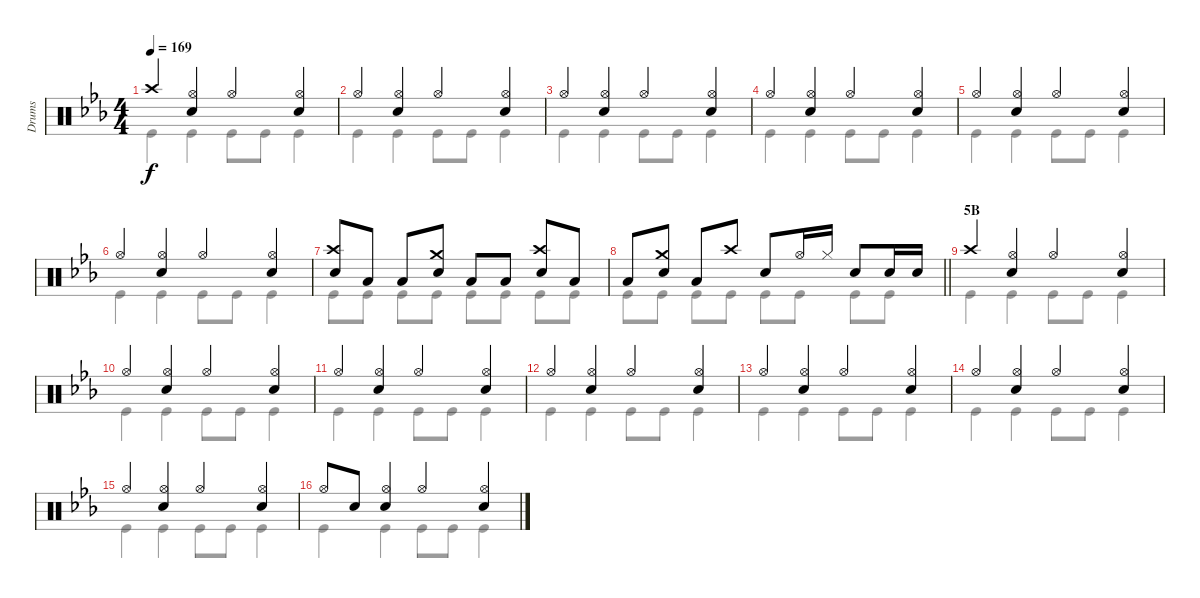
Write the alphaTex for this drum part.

\track ("Drums" "Drums") {instrument percussion}
\staff {score}
\articulation defaults
\voice
\ts (4 4)
\tempo 169
\clef neutral
\ks eb "Crash high (hit)".4{dy f}
("Hi-Hat (open)" "Snare (hit) 2").4 "Hi-Hat (open)".4 ("Hi-Hat (open)" "Snare (hit) 2").4 |
"Hi-Hat (open)".4 ("Hi-Hat (open)" "Snare (hit) 2").4 "Hi-Hat (open)".4 ("Hi-Hat (open)" "Snare (hit) 2").4 |
"Hi-Hat (open)".4 ("Hi-Hat (open)" "Snare (hit) 2").4 "Hi-Hat (open)".4 ("Hi-Hat (open)" "Snare (hit) 2").4 |
"Hi-Hat (open)".4 ("Hi-Hat (open)" "Snare (hit) 2").4 "Hi-Hat (open)".4 ("Hi-Hat (open)" "Snare (hit) 2").4 |
"Hi-Hat (open)".4 ("Hi-Hat (open)" "Snare (hit) 2").4 "Hi-Hat (open)".4 ("Hi-Hat (open)" "Snare (hit) 2").4 |
"Hi-Hat (open)".4 ("Hi-Hat (open)" "Snare (hit) 2").4 "Hi-Hat (open)".4 ("Hi-Hat (open)" "Snare (hit) 2").4 |
("Crash high (hit)" "Snare (hit) 2").8 "Low Tom (hit)".8 "Low Tom (hit)".8 ("Crash medium (hit)" "Snare (hit) 2").8 "Low Tom (hit)".8 "Low Tom (hit)".8 ("Crash high (hit)" "Snare (hit) 2").8 "Low Tom (hit)".8 |
\barLineRight lightlight "Low Tom (hit)".8
("Crash medium (hit)" "Snare (hit) 2").8 "Low Tom (hit)".8 "Crash high (hit)".8 "Snare (hit) 2".8 "Hi-Hat (open)".16 "Hi-Hat (closed)".16 "Snare (hit) 2".8 "Snare (hit) 2".16 "Snare (hit) 2".16 |
\section ("" "5B")
"Crash high (hit)".4 ("Hi-Hat (open)" "Snare (hit) 2").4 "Hi-Hat (open)".4 ("Hi-Hat (open)" "Snare (hit) 2").4 |
"Hi-Hat (open)".4 ("Hi-Hat (open)" "Snare (hit) 2").4 "Hi-Hat (open)".4 ("Hi-Hat (open)" "Snare (hit) 2").4 |
"Hi-Hat (open)".4 ("Hi-Hat (open)" "Snare (hit) 2").4 "Hi-Hat (open)".4 ("Hi-Hat (open)" "Snare (hit) 2").4 |
"Hi-Hat (open)".4 ("Hi-Hat (open)" "Snare (hit) 2").4 "Hi-Hat (open)".4 ("Hi-Hat (open)" "Snare (hit) 2").4 |
"Hi-Hat (open)".4 ("Hi-Hat (open)" "Snare (hit) 2").4 "Hi-Hat (open)".4 ("Hi-Hat (open)" "Snare (hit) 2").4 |
"Hi-Hat (open)".4 ("Hi-Hat (open)" "Snare (hit) 2").4 "Hi-Hat (open)".4 ("Hi-Hat (open)" "Snare (hit) 2").4 |
"Hi-Hat (open)".4 ("Hi-Hat (open)" "Snare (hit) 2").4 "Hi-Hat (open)".4 ("Hi-Hat (open)" "Snare (hit) 2").4 |
"Hi-Hat (open)".8 "Snare (hit) 2".8 ("Hi-Hat (open)" "Snare (hit) 2").4 "Hi-Hat (open)".4 ("Hi-Hat (open)" "Snare (hit) 2").4
\voice
\clef neutral
\ottava regular
\simile none
\ks eb "Kick (hit)".4{dy f} "Kick (hit)".4 "Kick (hit)".8 "Kick (hit)".8 "Kick (hit)".4
|
"Kick (hit)".4 "Kick (hit)".4 "Kick (hit)".8 "Kick (hit)".8 "Kick (hit)".4 |
"Kick (hit)".4 "Kick (hit)".4 "Kick (hit)".8 "Kick (hit)".8 "Kick (hit)".4 |
"Kick (hit)".4 "Kick (hit)".4 "Kick (hit)".8 "Kick (hit)".8 "Kick (hit)".4 |
"Kick (hit)".4 "Kick (hit)".4 "Kick (hit)".8 "Kick (hit)".8 "Kick (hit)".4 |
"Kick (hit)".4 "Kick (hit)".4 "Kick (hit)".8 "Kick (hit)".8 "Kick (hit)".4 |
"Kick (hit)".8 "Kick (hit)".8 "Kick (hit)".8 "Kick (hit)".8 "Kick (hit)".8 "Kick (hit)".8 "Kick (hit)".8 "Kick (hit)".8 |
\barLineRight lightlight "Kick (hit)".8 "Kick (hit)".8 "Kick (hit)".8 "Kick (hit)".8 "Kick (hit)".8 "Kick (hit)".8 "Kick (hit)".8 "Kick (hit)".8
|
"Kick (hit)".4 "Kick (hit)".4 "Kick (hit)".8 "Kick (hit)".8 "Kick (hit)".4 |
"Kick (hit)".4 "Kick (hit)".4 "Kick (hit)".8 "Kick (hit)".8 "Kick (hit)".4 |
"Kick (hit)".4 "Kick (hit)".4 "Kick (hit)".8 "Kick (hit)".8 "Kick (hit)".4 |
"Kick (hit)".4 "Kick (hit)".4 "Kick (hit)".8 "Kick (hit)".8 "Kick (hit)".4 |
"Kick (hit)".4 "Kick (hit)".4 "Kick (hit)".8 "Kick (hit)".8 "Kick (hit)".4 |
"Kick (hit)".4 "Kick (hit)".4 "Kick (hit)".8 "Kick (hit)".8 "Kick (hit)".4 |
"Kick (hit)".4 "Kick (hit)".4 "Kick (hit)".8 "Kick (hit)".8 "Kick (hit)".4 |
"Kick (hit)".4 "Kick (hit)".4 "Kick (hit)".8 "Kick (hit)".8 "Kick (hit)".4
